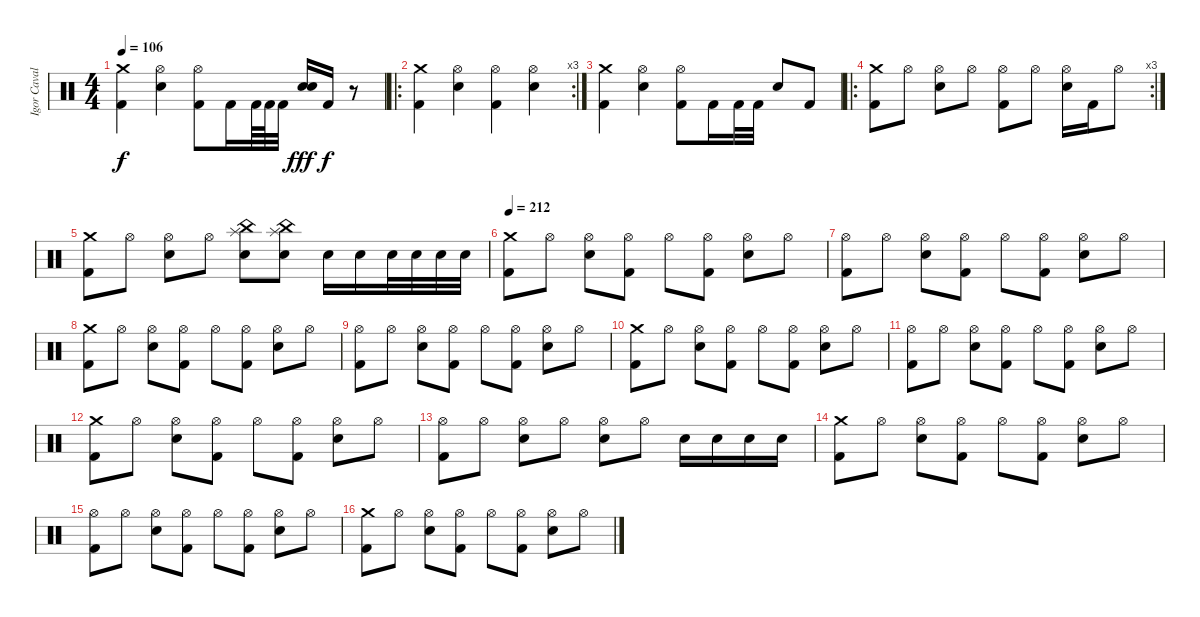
\track ("Igor Cavalera" "Igor Caval") {instrument percussion}
\staff {score}
\articulation defaults
\ts (4 4)
\tempo 106
\clef neutral
\ks c
("Kick (hit) 2" "Crash medium (hit)").4{dy f} ("Snare (hit) 2" "Hi-Hat (open)").4 ("Kick (hit) 2" "Hi-Hat (open)").8 "Kick (hit) 2".16 "Kick (hit) 2".64 "Kick (hit) 2".64 "Kick (hit) 2".32 ("Snare (hit) 2" "Snare (hit) 2").16{dy fff} "Kick (hit) 2".16{dy f} r.8 |
\ro
\rc 3
("Kick (hit) 2" "Crash medium (hit)").4 ("Snare (hit) 2" "Hi-Hat (open)").4 ("Kick (hit) 2" "Hi-Hat (open)").4 ("Snare (hit) 2" "Hi-Hat (open)").4 |
("Kick (hit) 2" "Crash medium (hit)").4 ("Snare (hit) 2" "Hi-Hat (open)").4 ("Kick (hit) 2" "Hi-Hat (open)").8 "Kick (hit) 2".16 "Kick (hit) 2".32 "Kick (hit) 2".32 "Snare (hit) 2".8 "Kick (hit) 2".8 |
\ro
\rc 3
("Kick (hit) 2" "Crash medium (hit)").8 "Hi-Hat (open)".8 ("Snare (hit) 2" "Hi-Hat (open)").8 "Hi-Hat (open)".8 ("Kick (hit) 2" "Hi-Hat (open)").8 "Hi-Hat (open)".8 ("Snare (hit) 2" "Hi-Hat (open)").16 "Kick (hit) 2".16 "Hi-Hat (open)".8 |
("Kick (hit) 2" "Crash medium (hit)").8 "Hi-Hat (open)".8 ("Snare (hit) 2" "Hi-Hat (open)").8 "Hi-Hat (open)".8 ("Splash (hit)" "Snare (hit) 2" "China (hit)").8 ("Splash (hit)" "Snare (hit) 2" "China (hit)").8 "Snare (hit) 2".16 "Snare (hit) 2".16 "Snare (hit) 2".32 "Snare (hit) 2".32 "Snare (hit) 2".32 "Snare (hit) 2".32 |
\tempo 212
("Kick (hit) 2" "Crash medium (hit)").8 "Hi-Hat (open)".8 ("Snare (hit) 2" "Hi-Hat (open)").8 ("Kick (hit) 2" "Hi-Hat (open)").8 "Hi-Hat (open)".8 ("Kick (hit) 2" "Hi-Hat (open)").8 ("Snare (hit) 2" "Hi-Hat (open)").8 "Hi-Hat (open)".8 |
("Kick (hit) 2" "Hi-Hat (open)").8 "Hi-Hat (open)".8 ("Snare (hit) 2" "Hi-Hat (open)").8 ("Kick (hit) 2" "Hi-Hat (open)").8 "Hi-Hat (open)".8 ("Kick (hit) 2" "Hi-Hat (open)").8 ("Snare (hit) 2" "Hi-Hat (open)").8 "Hi-Hat (open)".8 |
("Kick (hit) 2" "Crash medium (hit)").8 "Hi-Hat (open)".8 ("Snare (hit) 2" "Hi-Hat (open)").8 ("Kick (hit) 2" "Hi-Hat (open)").8 "Hi-Hat (open)".8 ("Kick (hit) 2" "Hi-Hat (open)").8 ("Snare (hit) 2" "Hi-Hat (open)").8 "Hi-Hat (open)".8 |
("Kick (hit) 2" "Hi-Hat (open)").8 "Hi-Hat (open)".8 ("Snare (hit) 2" "Hi-Hat (open)").8 ("Kick (hit) 2" "Hi-Hat (open)").8 "Hi-Hat (open)".8 ("Kick (hit) 2" "Hi-Hat (open)").8 ("Snare (hit) 2" "Hi-Hat (open)").8 "Hi-Hat (open)".8 |
("Kick (hit) 2" "Crash medium (hit)").8 "Hi-Hat (open)".8 ("Snare (hit) 2" "Hi-Hat (open)").8 ("Kick (hit) 2" "Hi-Hat (open)").8 "Hi-Hat (open)".8 ("Kick (hit) 2" "Hi-Hat (open)").8 ("Snare (hit) 2" "Hi-Hat (open)").8 "Hi-Hat (open)".8 |
("Kick (hit) 2" "Hi-Hat (open)").8 "Hi-Hat (open)".8 ("Snare (hit) 2" "Hi-Hat (open)").8 ("Kick (hit) 2" "Hi-Hat (open)").8 "Hi-Hat (open)".8 ("Kick (hit) 2" "Hi-Hat (open)").8 ("Snare (hit) 2" "Hi-Hat (open)").8 "Hi-Hat (open)".8 |
("Kick (hit) 2" "Crash medium (hit)").8 "Hi-Hat (open)".8 ("Snare (hit) 2" "Hi-Hat (open)").8 ("Kick (hit) 2" "Hi-Hat (open)").8 "Hi-Hat (open)".8 ("Kick (hit) 2" "Hi-Hat (open)").8 ("Snare (hit) 2" "Hi-Hat (open)").8 "Hi-Hat (open)".8 |
("Kick (hit) 2" "Hi-Hat (open)").8 "Hi-Hat (open)".8 ("Snare (hit) 2" "Hi-Hat (open)").8 "Hi-Hat (open)".8 ("Snare (hit) 2" "Hi-Hat (open)").8 "Hi-Hat (open)".8 "Snare (hit) 2".16 "Snare (hit) 2".16 "Snare (hit) 2".16 "Snare (hit) 2".16 |
("Kick (hit) 2" "Crash medium (hit)").8 "Hi-Hat (open)".8 ("Snare (hit) 2" "Hi-Hat (open)").8 ("Kick (hit) 2" "Hi-Hat (open)").8 "Hi-Hat (open)".8 ("Kick (hit) 2" "Hi-Hat (open)").8 ("Snare (hit) 2" "Hi-Hat (open)").8 "Hi-Hat (open)".8 |
("Kick (hit) 2" "Hi-Hat (open)").8 "Hi-Hat (open)".8 ("Snare (hit) 2" "Hi-Hat (open)").8 ("Kick (hit) 2" "Hi-Hat (open)").8 "Hi-Hat (open)".8 ("Kick (hit) 2" "Hi-Hat (open)").8 ("Snare (hit) 2" "Hi-Hat (open)").8 "Hi-Hat (open)".8 |
("Kick (hit) 2" "Crash medium (hit)").8 "Hi-Hat (open)".8 ("Snare (hit) 2" "Hi-Hat (open)").8 ("Kick (hit) 2" "Hi-Hat (open)").8 "Hi-Hat (open)".8 ("Kick (hit) 2" "Hi-Hat (open)").8 ("Snare (hit) 2" "Hi-Hat (open)").8 "Hi-Hat (open)".8
